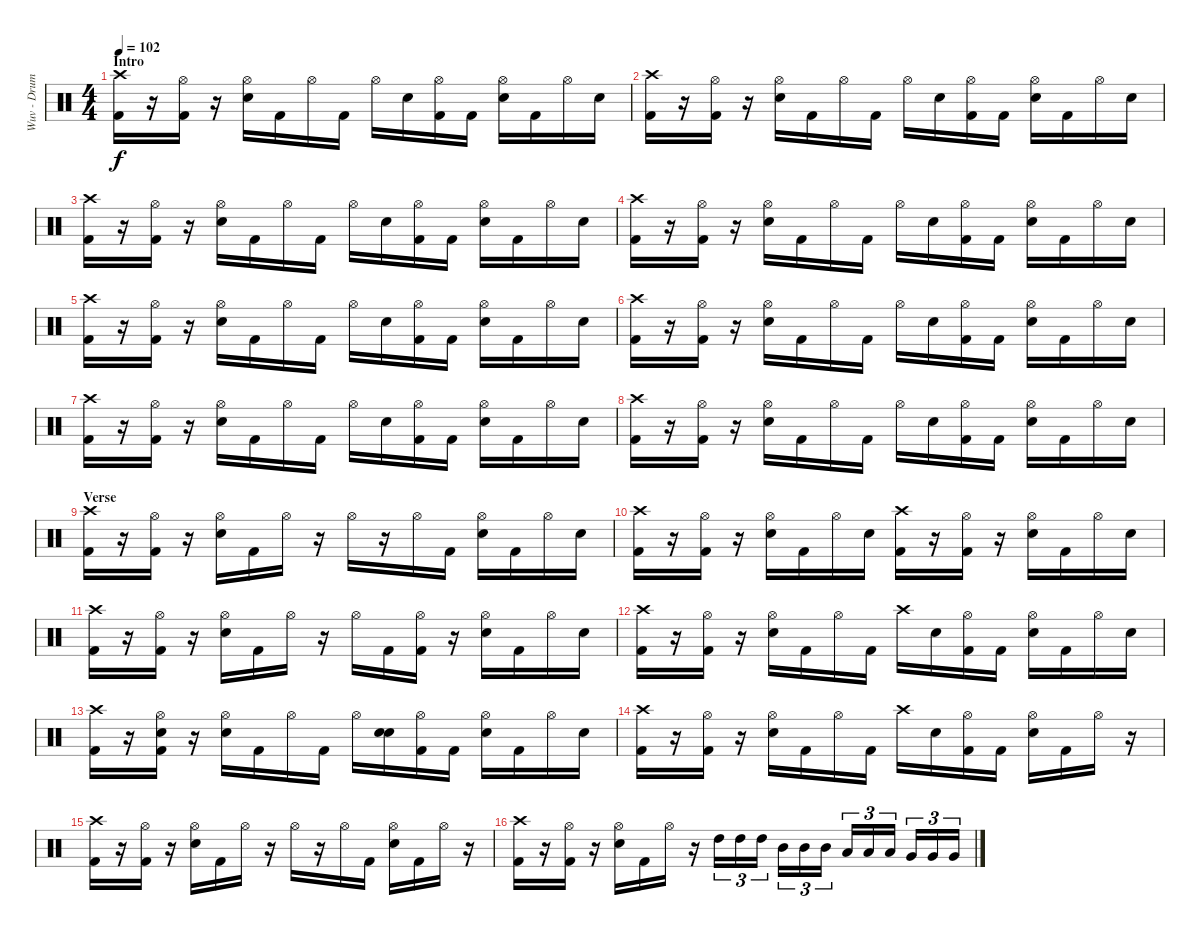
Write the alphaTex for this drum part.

\track ("Wuv - Drums" "Wuv - Drum") {instrument percussion}
\staff {score}
\articulation defaults
\ts (4 4)
\section ("" "Intro")
\tempo 102
\clef neutral
\ks c
("Crash high (hit)" "Kick (hit) 2").16{dy f} r.16 ("Hi-Hat (open)" "Kick (hit) 2").16 r.16 ("Hi-Hat (open)" "Snare (hit) 2").16 "Kick (hit) 2".16 "Hi-Hat (open)".16 "Kick (hit) 2".16 "Hi-Hat (open)".16 "Snare (hit) 2".16 ("Hi-Hat (open)" "Kick (hit) 2").16 "Kick (hit) 2".16 ("Hi-Hat (open)" "Snare (hit) 2").16 "Kick (hit) 2".16 "Hi-Hat (open)".16 "Snare (hit) 2".16 |
("Crash high (hit)" "Kick (hit) 2").16 r.16 ("Hi-Hat (open)" "Kick (hit) 2").16 r.16 ("Hi-Hat (open)" "Snare (hit) 2").16 "Kick (hit) 2".16 "Hi-Hat (open)".16 "Kick (hit) 2".16 "Hi-Hat (open)".16 "Snare (hit) 2".16 ("Hi-Hat (open)" "Kick (hit) 2").16 "Kick (hit) 2".16 ("Hi-Hat (open)" "Snare (hit) 2").16 "Kick (hit) 2".16 "Hi-Hat (open)".16 "Snare (hit) 2".16 |
("Crash high (hit)" "Kick (hit) 2").16 r.16 ("Hi-Hat (open)" "Kick (hit) 2").16 r.16 ("Hi-Hat (open)" "Snare (hit) 2").16 "Kick (hit) 2".16 "Hi-Hat (open)".16 "Kick (hit) 2".16 "Hi-Hat (open)".16 "Snare (hit) 2".16 ("Hi-Hat (open)" "Kick (hit) 2").16 "Kick (hit) 2".16 ("Hi-Hat (open)" "Snare (hit) 2").16 "Kick (hit) 2".16 "Hi-Hat (open)".16 "Snare (hit) 2".16 |
("Crash high (hit)" "Kick (hit) 2").16 r.16 ("Hi-Hat (open)" "Kick (hit) 2").16 r.16 ("Hi-Hat (open)" "Snare (hit) 2").16 "Kick (hit) 2".16 "Hi-Hat (open)".16 "Kick (hit) 2".16 "Hi-Hat (open)".16 "Snare (hit) 2".16 ("Hi-Hat (open)" "Kick (hit) 2").16 "Kick (hit) 2".16 ("Hi-Hat (open)" "Snare (hit) 2").16 "Kick (hit) 2".16 "Hi-Hat (open)".16 "Snare (hit) 2".16 |
("Crash high (hit)" "Kick (hit) 2").16 r.16 ("Hi-Hat (open)" "Kick (hit) 2").16 r.16 ("Hi-Hat (open)" "Snare (hit) 2").16 "Kick (hit) 2".16 "Hi-Hat (open)".16 "Kick (hit) 2".16 "Hi-Hat (open)".16 "Snare (hit) 2".16 ("Hi-Hat (open)" "Kick (hit) 2").16 "Kick (hit) 2".16 ("Hi-Hat (open)" "Snare (hit) 2").16 "Kick (hit) 2".16 "Hi-Hat (open)".16 "Snare (hit) 2".16 |
("Crash high (hit)" "Kick (hit) 2").16 r.16 ("Hi-Hat (open)" "Kick (hit) 2").16 r.16 ("Hi-Hat (open)" "Snare (hit) 2").16 "Kick (hit) 2".16 "Hi-Hat (open)".16 "Kick (hit) 2".16 "Hi-Hat (open)".16 "Snare (hit) 2".16 ("Hi-Hat (open)" "Kick (hit) 2").16 "Kick (hit) 2".16 ("Hi-Hat (open)" "Snare (hit) 2").16 "Kick (hit) 2".16 "Hi-Hat (open)".16 "Snare (hit) 2".16 |
("Crash high (hit)" "Kick (hit) 2").16 r.16 ("Hi-Hat (open)" "Kick (hit) 2").16 r.16 ("Hi-Hat (open)" "Snare (hit) 2").16 "Kick (hit) 2".16 "Hi-Hat (open)".16 "Kick (hit) 2".16 "Hi-Hat (open)".16 "Snare (hit) 2".16 ("Hi-Hat (open)" "Kick (hit) 2").16 "Kick (hit) 2".16 ("Hi-Hat (open)" "Snare (hit) 2").16 "Kick (hit) 2".16 "Hi-Hat (open)".16 "Snare (hit) 2".16 |
("Crash high (hit)" "Kick (hit) 2").16 r.16 ("Hi-Hat (open)" "Kick (hit) 2").16 r.16 ("Hi-Hat (open)" "Snare (hit) 2").16 "Kick (hit) 2".16 "Hi-Hat (open)".16 "Kick (hit) 2".16 "Hi-Hat (open)".16 "Snare (hit) 2".16 ("Hi-Hat (open)" "Kick (hit) 2").16 "Kick (hit) 2".16 ("Hi-Hat (open)" "Snare (hit) 2").16 "Kick (hit) 2".16 "Hi-Hat (open)".16 "Snare (hit) 2".16 |
\section ("" "Verse")
("Crash high (hit)" "Kick (hit) 2").16 r.16 ("Hi-Hat (open)" "Kick (hit) 2").16 r.16 ("Hi-Hat (open)" "Snare (hit) 2").16 "Kick (hit) 2".16 "Hi-Hat (open)".16 r.16 "Hi-Hat (open)".16 r.16 "Hi-Hat (open)".16 "Kick (hit) 2".16 ("Hi-Hat (open)" "Snare (hit) 2").16 "Kick (hit) 2".16 "Hi-Hat (open)".16 "Snare (hit) 2".16 |
("Crash high (hit)" "Kick (hit) 2").16 r.16 ("Hi-Hat (open)" "Kick (hit) 2").16 r.16 ("Hi-Hat (open)" "Snare (hit) 2").16 "Kick (hit) 2".16 "Hi-Hat (open)".16 "Snare (hit) 2".16 ("Crash high (hit)" "Kick (hit) 2").16 r.16 ("Hi-Hat (open)" "Kick (hit) 2").16 r.16 ("Hi-Hat (open)" "Snare (hit) 2").16 "Kick (hit) 2".16 "Hi-Hat (open)".16 "Snare (hit) 2".16 |
("Crash high (hit)" "Kick (hit) 2").16 r.16 ("Hi-Hat (open)" "Kick (hit) 2").16 r.16 ("Hi-Hat (open)" "Snare (hit) 2").16 "Kick (hit) 2".16 "Hi-Hat (open)".16 r.16 "Hi-Hat (open)".16 "Kick (hit) 2".16 ("Hi-Hat (open)" "Kick (hit) 2").16 r.16 ("Hi-Hat (open)" "Snare (hit) 2").16 "Kick (hit) 2".16 "Hi-Hat (open)".16 "Snare (hit) 2".16 |
("Crash high (hit)" "Kick (hit) 2").16 r.16 ("Hi-Hat (open)" "Kick (hit) 2").16 r.16 ("Hi-Hat (open)" "Snare (hit) 2").16 "Kick (hit) 2".16 "Hi-Hat (open)".16 "Kick (hit) 2".16 "Crash high (hit)".16 "Snare (hit) 2".16 ("Hi-Hat (open)" "Kick (hit) 2").16 "Kick (hit) 2".16 ("Hi-Hat (open)" "Snare (hit) 2").16 "Kick (hit) 2".16 "Hi-Hat (open)".16 "Snare (hit) 2".16 |
("Crash high (hit)" "Kick (hit) 2").16 r.16 ("Hi-Hat (open)" "Snare (hit) 2" "Kick (hit) 2").16 r.16 ("Hi-Hat (open)" "Snare (hit) 2").16 "Kick (hit) 2".16 "Hi-Hat (open)".16 "Kick (hit) 2".16 "Hi-Hat (open)".16 ("Electric Snare (hit)" "Snare (hit) 2").16 ("Hi-Hat (open)" "Kick (hit) 2").16 "Kick (hit) 2".16 ("Hi-Hat (open)" "Snare (hit) 2").16 "Kick (hit) 2".16 "Hi-Hat (open)".16 "Snare (hit) 2".16 |
("Crash high (hit)" "Kick (hit) 2").16 r.16 ("Hi-Hat (open)" "Kick (hit) 2").16 r.16 ("Hi-Hat (open)" "Snare (hit) 2").16 "Kick (hit) 2".16 "Hi-Hat (open)".16 "Kick (hit) 2".16 "Crash high (hit)".16 "Snare (hit) 2".16 ("Hi-Hat (open)" "Kick (hit) 2").16 "Kick (hit) 2".16 ("Hi-Hat (open)" "Snare (hit) 2").16 "Kick (hit) 2".16 "Hi-Hat (open)".16 r.16 |
("Crash high (hit)" "Kick (hit) 2").16 r.16 ("Hi-Hat (open)" "Kick (hit) 2").16 r.16 ("Hi-Hat (open)" "Snare (hit) 2").16 "Kick (hit) 2".16 "Hi-Hat (open)".16 r.16 "Hi-Hat (open)".16 r.16 "Hi-Hat (open)".16 "Kick (hit) 2".16 ("Hi-Hat (open)" "Snare (hit) 2").16 "Kick (hit) 2".16 "Hi-Hat (open)".16 r.16 |
("Crash high (hit)" "Kick (hit) 2").16 r.16 ("Hi-Hat (open)" "Kick (hit) 2").16 r.16 ("Hi-Hat (open)" "Snare (hit) 2").16 "Kick (hit) 2".16 "Hi-Hat (open)".16 r.16 "High Tom (hit)".16{tu (3 2)} "High Tom (hit)".16{tu (3 2)} "High Tom (hit)".16{tu (3 2)} "Mid Tom (hit)".16{tu (3 2)} "Mid Tom (hit)".16{tu (3 2)} "Mid Tom (hit)".16{tu (3 2)} "Low Tom (hit)".16{tu (3 2)} "Low Tom (hit)".16{tu (3 2)} "Low Tom (hit)".16{tu (3 2)} "Very Low Tom (hit)".16{tu (3 2)} "Very Low Tom (hit)".16{tu (3 2)} "Very Low Tom (hit)".16{tu (3 2)}
